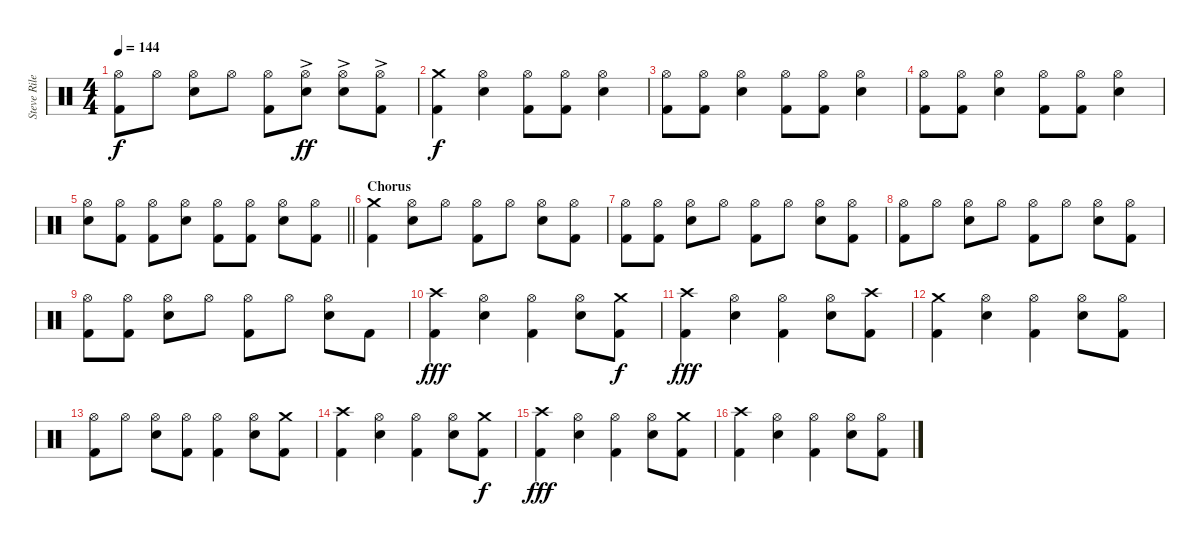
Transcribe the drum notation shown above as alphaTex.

\track ("Steve Riley" "Steve Rile") {instrument percussion}
\staff {score}
\articulation defaults
\ts (4 4)
\tempo 144
\clef neutral
\ks c
("Hi-Hat (open)" "Kick (hit) 2").8{dy f} "Hi-Hat (open)".8 ("Hi-Hat (open)" "Snare (hit) 2").8 "Hi-Hat (open)".8 ("Hi-Hat (open)" "Kick (hit) 2").8 ("Hi-Hat (open)"{ac} "Snare (hit) 2").8{dy ff} ("Hi-Hat (open)"{ac} "Snare (hit) 2").8 ("Hi-Hat (open)"{ac} "Kick (hit) 2").8 |
("Crash medium (hit)" "Kick (hit) 2").4{dy f} ("Hi-Hat (open)" "Snare (hit) 2").4 ("Hi-Hat (open)" "Kick (hit) 2").8 ("Hi-Hat (open)" "Kick (hit) 2").8 ("Hi-Hat (open)" "Snare (hit) 2").4 |
("Hi-Hat (open)" "Kick (hit) 2").8 ("Hi-Hat (open)" "Kick (hit) 2").8 ("Hi-Hat (open)" "Snare (hit) 2").4 ("Hi-Hat (open)" "Kick (hit) 2").8 ("Hi-Hat (open)" "Kick (hit) 2").8 ("Hi-Hat (open)" "Snare (hit) 2").4 |
("Hi-Hat (open)" "Kick (hit) 2").8 ("Hi-Hat (open)" "Kick (hit) 2").8 ("Hi-Hat (open)" "Snare (hit) 2").4 ("Hi-Hat (open)" "Kick (hit) 2").8 ("Hi-Hat (open)" "Kick (hit) 2").8 ("Hi-Hat (open)" "Snare (hit) 2").4 |
\barLineRight lightlight
("Hi-Hat (open)" "Snare (hit) 2").8 ("Hi-Hat (open)" "Kick (hit) 2").8 ("Hi-Hat (open)" "Kick (hit) 2").8 ("Hi-Hat (open)" "Snare (hit) 2").8 ("Hi-Hat (open)" "Kick (hit) 2").8 ("Hi-Hat (open)" "Kick (hit) 2").8 ("Hi-Hat (open)" "Snare (hit) 2").8 ("Hi-Hat (open)" "Kick (hit) 2").8 |
\section ("" "Chorus")
("Crash medium (hit)" "Kick (hit) 2").4 ("Hi-Hat (open)" "Snare (hit) 2").8 "Hi-Hat (open)".8 ("Hi-Hat (open)" "Kick (hit) 2").8 "Hi-Hat (open)".8 ("Hi-Hat (open)" "Snare (hit) 2").8 ("Hi-Hat (open)" "Kick (hit) 2").8 |
("Hi-Hat (open)" "Kick (hit) 2").8 ("Hi-Hat (open)" "Kick (hit) 2").8 ("Hi-Hat (open)" "Snare (hit) 2").8 "Hi-Hat (open)".8 ("Hi-Hat (open)" "Kick (hit) 2").8 "Hi-Hat (open)".8 ("Hi-Hat (open)" "Snare (hit) 2").8 ("Hi-Hat (open)" "Kick (hit) 2").8 |
("Hi-Hat (open)" "Kick (hit) 2").8 "Hi-Hat (open)".8 ("Hi-Hat (open)" "Snare (hit) 2").8 "Hi-Hat (open)".8 ("Hi-Hat (open)" "Kick (hit) 2").8 "Hi-Hat (open)".8 ("Hi-Hat (open)" "Snare (hit) 2").8 ("Hi-Hat (open)" "Kick (hit) 2").8 |
("Hi-Hat (open)" "Kick (hit) 2").8 ("Hi-Hat (open)" "Kick (hit) 2").8 ("Hi-Hat (open)" "Snare (hit) 2").8 "Hi-Hat (open)".8 ("Hi-Hat (open)" "Kick (hit) 2").8 "Hi-Hat (open)".8 ("Hi-Hat (open)" "Snare (hit) 2").8 "Kick (hit) 2".8 |
("Crash high (hit)" "Kick (hit) 2").4{dy fff} ("Hi-Hat (open)" "Snare (hit) 2").4 ("Hi-Hat (open)" "Kick (hit) 2").4 ("Hi-Hat (open)" "Snare (hit) 2").8 ("Crash medium (hit)" "Kick (hit) 2").8{dy f} |
("Crash high (hit)" "Kick (hit) 2").4{dy fff} ("Hi-Hat (open)" "Snare (hit) 2").4 ("Hi-Hat (open)" "Kick (hit) 2").4 ("Hi-Hat (open)" "Snare (hit) 2").8 ("Crash high (hit)" "Kick (hit) 2").8 |
("Crash medium (hit)" "Kick (hit) 2").4 ("Hi-Hat (open)" "Snare (hit) 2").4 ("Hi-Hat (open)" "Kick (hit) 2").4 ("Hi-Hat (open)" "Snare (hit) 2").8 ("Hi-Hat (open)" "Kick (hit) 2").8 |
("Hi-Hat (open)" "Kick (hit) 2").8 "Hi-Hat (open)".8 ("Hi-Hat (open)" "Snare (hit) 2").8 ("Hi-Hat (open)" "Kick (hit) 2").8 ("Hi-Hat (open)" "Kick (hit) 2").4 ("Hi-Hat (open)" "Snare (hit) 2").8 ("Crash medium (hit)" "Kick (hit) 2").8 |
("Crash high (hit)" "Kick (hit) 2").4 ("Hi-Hat (open)" "Snare (hit) 2").4 ("Hi-Hat (open)" "Kick (hit) 2").4 ("Hi-Hat (open)" "Snare (hit) 2").8 ("Crash medium (hit)" "Kick (hit) 2").8{dy f} |
("Crash high (hit)" "Kick (hit) 2").4{dy fff} ("Hi-Hat (open)" "Snare (hit) 2").4 ("Hi-Hat (open)" "Kick (hit) 2").4 ("Hi-Hat (open)" "Snare (hit) 2").8 ("Crash medium (hit)" "Kick (hit) 2").8 |
("Crash high (hit)" "Kick (hit) 2").4 ("Hi-Hat (open)" "Snare (hit) 2").4 ("Hi-Hat (open)" "Kick (hit) 2").4 ("Hi-Hat (open)" "Snare (hit) 2").8 ("Hi-Hat (open)" "Kick (hit) 2").8
